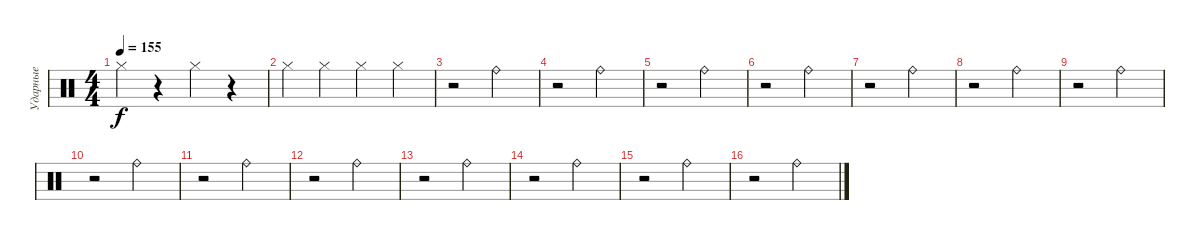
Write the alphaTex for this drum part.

\track ("Ударные" "Ударные") {instrument percussion}
\staff {score}
\articulation defaults
\ts (4 4)
\tempo 155
\clef neutral
\ks c "Hi-Hat (closed)".4{dy f}
r.4 "Hi-Hat (closed)".4 r.4 |
"Hi-Hat (closed)".4 "Hi-Hat (closed)".4 "Hi-Hat (closed)".4 "Hi-Hat (closed)".4 |
r.2 "Ride (bell)".2 |
r.2 "Ride (bell)".2 |
r.2 "Ride (bell)".2 |
r.2 "Ride (bell)".2 |
r.2 "Ride (bell)".2 |
r.2 "Ride (bell)".2 |
r.2 "Ride (bell)".2 |
r.2 "Ride (bell)".2 |
r.2 "Ride (bell)".2 |
r.2 "Ride (bell)".2 |
r.2 "Ride (bell)".2 |
r.2 "Ride (bell)".2 |
r.2 "Ride (bell)".2 |
r.2 "Ride (bell)".2
